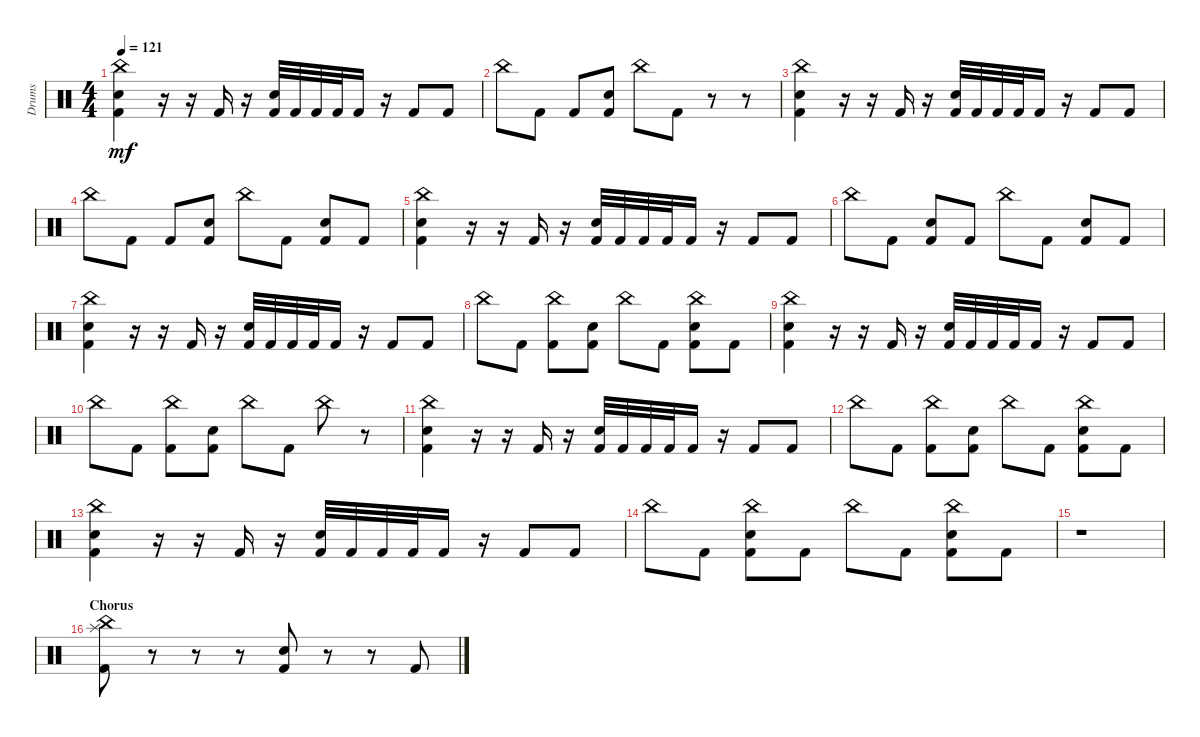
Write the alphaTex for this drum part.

\track ("Drums" "Drums") {instrument percussion}
\staff {score}
\articulation defaults
\ts (4 4)
\tempo 121
\clef neutral
\ks c
("Kick (hit) 2" "Snare (hit) 2" "China (hit)").4{dy mf} r.16 r.16 "Kick (hit) 2".16 r.16 ("Kick (hit) 2" "Snare (hit) 2").32 "Kick (hit) 2".32 "Kick (hit) 2".32 "Kick (hit) 2".32 "Kick (hit) 2".16 r.16 "Kick (hit) 2".8 "Kick (hit) 2".8 |
"China (hit)".8 "Kick (hit) 2".8 "Kick (hit) 2".8 ("Kick (hit) 2" "Snare (hit) 2").8 "China (hit)".8 "Kick (hit) 2".8 r.8 r.8 |
("Kick (hit) 2" "Snare (hit) 2" "China (hit)").4 r.16 r.16 "Kick (hit) 2".16 r.16 ("Kick (hit) 2" "Snare (hit) 2").32 "Kick (hit) 2".32 "Kick (hit) 2".32 "Kick (hit) 2".32 "Kick (hit) 2".16 r.16 "Kick (hit) 2".8 "Kick (hit) 2".8 |
"China (hit)".8 "Kick (hit) 2".8 "Kick (hit) 2".8 ("Kick (hit) 2" "Snare (hit) 2").8 "China (hit)".8 "Kick (hit) 2".8 ("Kick (hit) 2" "Snare (hit) 2").8 "Kick (hit) 2".8 |
("Kick (hit) 2" "Snare (hit) 2" "China (hit)").4 r.16 r.16 "Kick (hit) 2".16 r.16 ("Kick (hit) 2" "Snare (hit) 2").32 "Kick (hit) 2".32 "Kick (hit) 2".32 "Kick (hit) 2".32 "Kick (hit) 2".16 r.16 "Kick (hit) 2".8 "Kick (hit) 2".8 |
"China (hit)".8 "Kick (hit) 2".8 ("Kick (hit) 2" "Snare (hit) 2").8 "Kick (hit) 2".8 "China (hit)".8 "Kick (hit) 2".8 ("Kick (hit) 2" "Snare (hit) 2").8 "Kick (hit) 2".8 |
("Kick (hit) 2" "Snare (hit) 2" "China (hit)").4 r.16 r.16 "Kick (hit) 2".16 r.16 ("Kick (hit) 2" "Snare (hit) 2").32 "Kick (hit) 2".32 "Kick (hit) 2".32 "Kick (hit) 2".32 "Kick (hit) 2".16 r.16 "Kick (hit) 2".8 "Kick (hit) 2".8 |
"China (hit)".8 "Kick (hit) 2".8 ("Kick (hit) 2" "China (hit)").8 ("Kick (hit) 2" "Snare (hit) 2").8 "China (hit)".8 "Kick (hit) 2".8 ("Kick (hit) 2" "Snare (hit) 2" "China (hit)").8 "Kick (hit) 2".8 |
("Kick (hit) 2" "Snare (hit) 2" "China (hit)").4 r.16 r.16 "Kick (hit) 2".16 r.16 ("Kick (hit) 2" "Snare (hit) 2").32 "Kick (hit) 2".32 "Kick (hit) 2".32 "Kick (hit) 2".32 "Kick (hit) 2".16 r.16 "Kick (hit) 2".8 "Kick (hit) 2".8 |
"China (hit)".8 "Kick (hit) 2".8 ("Kick (hit) 2" "China (hit)").8 ("Kick (hit) 2" "Snare (hit) 2").8 "China (hit)".8 "Kick (hit) 2".8 "China (hit)".8 r.8 |
("Kick (hit) 2" "Snare (hit) 2" "China (hit)").4 r.16 r.16 "Kick (hit) 2".16 r.16 ("Kick (hit) 2" "Snare (hit) 2").32 "Kick (hit) 2".32 "Kick (hit) 2".32 "Kick (hit) 2".32 "Kick (hit) 2".16 r.16 "Kick (hit) 2".8 "Kick (hit) 2".8 |
"China (hit)".8 "Kick (hit) 2".8 ("Kick (hit) 2" "China (hit)").8 ("Kick (hit) 2" "Snare (hit) 2").8 "China (hit)".8 "Kick (hit) 2".8 ("Kick (hit) 2" "Snare (hit) 2" "China (hit)").8 "Kick (hit) 2".8 |
("Kick (hit) 2" "Snare (hit) 2" "China (hit)").4 r.16 r.16 "Kick (hit) 2".16 r.16 ("Kick (hit) 2" "Snare (hit) 2").32 "Kick (hit) 2".32 "Kick (hit) 2".32 "Kick (hit) 2".32 "Kick (hit) 2".16 r.16 "Kick (hit) 2".8 "Kick (hit) 2".8 |
"China (hit)".8 "Kick (hit) 2".8 ("Kick (hit) 2" "Snare (hit) 2" "China (hit)").8 "Kick (hit) 2".8 "China (hit)".8 "Kick (hit) 2".8 ("Kick (hit) 2" "Snare (hit) 2" "China (hit)").8 "Kick (hit) 2".8 |
r.1 |
\section ("" "Chorus")
("Kick (hit) 2" "Splash (hit)" "China (hit)").8 r.8 r.8 r.8 ("Kick (hit) 2" "Snare (hit) 2").8 r.8 r.8 "Kick (hit) 2".8
